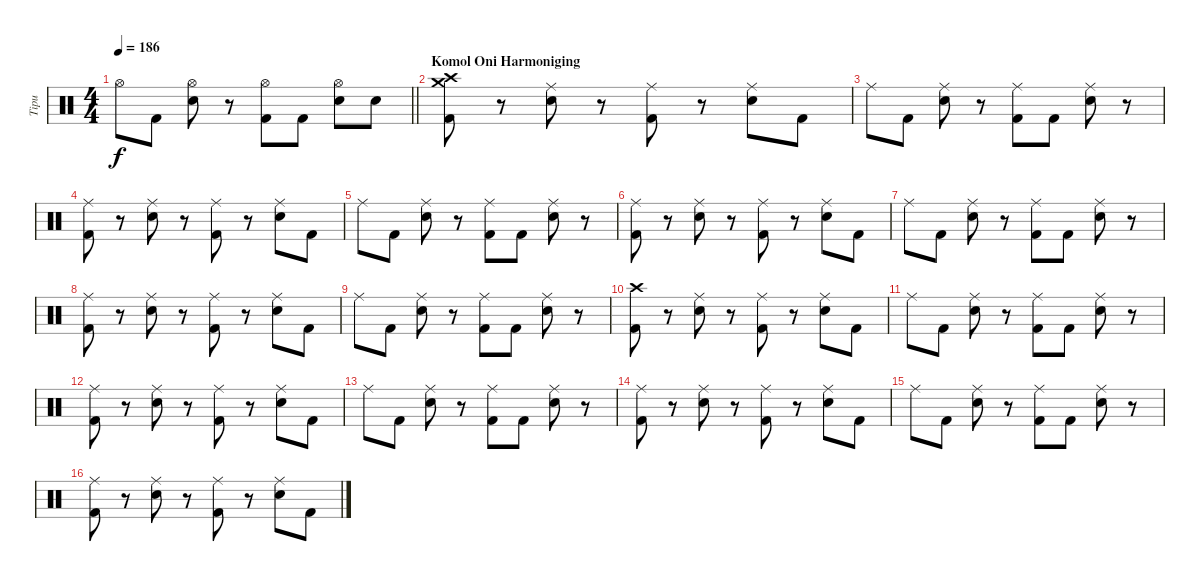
\track ("Tipu" "Tipu") {instrument percussion}
\staff {score}
\articulation defaults
\ts (4 4)
\tempo 186
\clef neutral
\barLineRight lightlight
\ks c "Hi-Hat (open)".8{dy f} "Kick (hit) 2".8
("Hi-Hat (open)" "Electric Snare (hit)").8 r.8 ("Hi-Hat (open)" "Kick (hit) 2").8 "Kick (hit) 2".8 ("Hi-Hat (open)" "Electric Snare (hit)").8 "Electric Snare (hit)".8 |
\section ("" "Komol Oni Harmoniging ")
("Crash high (hit)" "Crash medium (hit)" "Kick (hit) 2").8 r.8 ("Ride (middle)" "Electric Snare (hit)").8 r.8 ("Ride (middle)" "Kick (hit) 2").8 r.8 ("Ride (middle)" "Electric Snare (hit)").8 "Kick (hit) 2".8 |
"Ride (middle)".8 "Kick (hit) 2".8 ("Ride (middle)" "Electric Snare (hit)").8 r.8 ("Ride (middle)" "Kick (hit) 2").8 "Kick (hit) 2".8 ("Ride (middle)" "Electric Snare (hit)").8 r.8 |
("Ride (middle)" "Kick (hit) 2").8 r.8 ("Ride (middle)" "Electric Snare (hit)").8 r.8 ("Ride (middle)" "Kick (hit) 2").8 r.8 ("Ride (middle)" "Electric Snare (hit)").8 "Kick (hit) 2".8 |
"Ride (middle)".8 "Kick (hit) 2".8 ("Ride (middle)" "Electric Snare (hit)").8 r.8 ("Ride (middle)" "Kick (hit) 2").8 "Kick (hit) 2".8 ("Ride (middle)" "Electric Snare (hit)").8 r.8 |
("Ride (middle)" "Kick (hit) 2").8 r.8 ("Ride (middle)" "Electric Snare (hit)").8 r.8 ("Ride (middle)" "Kick (hit) 2").8 r.8 ("Ride (middle)" "Electric Snare (hit)").8 "Kick (hit) 2".8 |
"Ride (middle)".8 "Kick (hit) 2".8 ("Ride (middle)" "Electric Snare (hit)").8 r.8 ("Ride (middle)" "Kick (hit) 2").8 "Kick (hit) 2".8 ("Ride (middle)" "Electric Snare (hit)").8 r.8 |
("Ride (middle)" "Kick (hit) 2").8 r.8 ("Ride (middle)" "Electric Snare (hit)").8 r.8 ("Ride (middle)" "Kick (hit) 2").8 r.8 ("Ride (middle)" "Electric Snare (hit)").8 "Kick (hit) 2".8 |
"Ride (middle)".8 "Kick (hit) 2".8 ("Ride (middle)" "Electric Snare (hit)").8 r.8 ("Ride (middle)" "Kick (hit) 2").8 "Kick (hit) 2".8 ("Ride (middle)" "Electric Snare (hit)").8 r.8 |
("Crash high (hit)" "Kick (hit) 2").8 r.8 ("Ride (middle)" "Electric Snare (hit)").8 r.8 ("Ride (middle)" "Kick (hit) 2").8 r.8 ("Ride (middle)" "Electric Snare (hit)").8 "Kick (hit) 2".8 |
"Ride (middle)".8 "Kick (hit) 2".8 ("Ride (middle)" "Electric Snare (hit)").8 r.8 ("Ride (middle)" "Kick (hit) 2").8 "Kick (hit) 2".8 ("Ride (middle)" "Electric Snare (hit)").8 r.8 |
("Ride (middle)" "Kick (hit) 2").8 r.8 ("Ride (middle)" "Electric Snare (hit)").8 r.8 ("Ride (middle)" "Kick (hit) 2").8 r.8 ("Ride (middle)" "Electric Snare (hit)").8 "Kick (hit) 2".8 |
"Ride (middle)".8 "Kick (hit) 2".8 ("Ride (middle)" "Electric Snare (hit)").8 r.8 ("Ride (middle)" "Kick (hit) 2").8 "Kick (hit) 2".8 ("Ride (middle)" "Electric Snare (hit)").8 r.8 |
("Ride (middle)" "Kick (hit) 2").8 r.8 ("Ride (middle)" "Electric Snare (hit)").8 r.8 ("Ride (middle)" "Kick (hit) 2").8 r.8 ("Ride (middle)" "Electric Snare (hit)").8 "Kick (hit) 2".8 |
"Ride (middle)".8 "Kick (hit) 2".8 ("Ride (middle)" "Electric Snare (hit)").8 r.8 ("Ride (middle)" "Kick (hit) 2").8 "Kick (hit) 2".8 ("Ride (middle)" "Electric Snare (hit)").8 r.8 |
("Ride (middle)" "Kick (hit) 2").8 r.8 ("Ride (middle)" "Electric Snare (hit)").8 r.8 ("Ride (middle)" "Kick (hit) 2").8 r.8 ("Ride (middle)" "Electric Snare (hit)").8 "Kick (hit) 2".8
